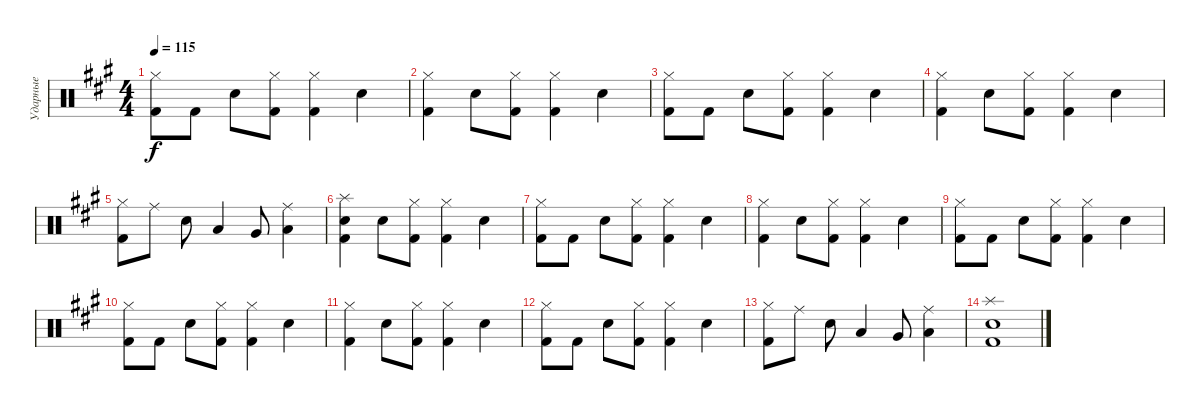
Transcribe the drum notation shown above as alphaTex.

\track ("Ударные" "Ударные") {instrument percussion}
\staff {score}
\articulation defaults
\ts (4 4)
\tempo 115
\clef neutral
\ks f#minor
("Hi-Hat (closed)" "Kick (hit) 2").8{dy f} "Kick (hit) 2".8 "Snare (hit) 2".8 ("Hi-Hat (closed)" "Kick (hit) 2").8{volume 12} ("Hi-Hat (closed)" "Kick (hit) 2").4{volume 11} "Snare (hit) 2".4 |
("Hi-Hat (closed)" "Kick (hit) 2").4 "Snare (hit) 2".8 ("Hi-Hat (closed)" "Kick (hit) 2").8{volume 12} ("Hi-Hat (closed)" "Kick (hit) 2").4{volume 11} "Snare (hit) 2".4 |
("Hi-Hat (closed)" "Kick (hit) 2").8 "Kick (hit) 2".8 "Snare (hit) 2".8 ("Hi-Hat (closed)" "Kick (hit) 2").8{volume 12} ("Hi-Hat (closed)" "Kick (hit) 2").4{volume 11} "Snare (hit) 2".4 |
("Hi-Hat (closed)" "Kick (hit) 2").4 "Snare (hit) 2".8 ("Hi-Hat (closed)" "Kick (hit) 2").8{volume 12} ("Hi-Hat (closed)" "Kick (hit) 2").4{volume 11} "Snare (hit) 2".4 |
("Hi-Hat (closed)" "Kick (hit) 2").8 "Ride (middle)".8 "Snare (hit) 2".8 "Low Tom (hit)".4{volume 12} "Very Low Tom (hit)".8{volume 11} ("Ride (middle)" "Low Floor Tom (hit)").4 |
("Snare (hit) 2" "Splash (hit)" "Kick (hit) 2").4 "Snare (hit) 2".8 ("Hi-Hat (closed)" "Kick (hit) 2").8{volume 12} ("Hi-Hat (closed)" "Kick (hit) 2").4{volume 11} "Snare (hit) 2".4 |
("Hi-Hat (closed)" "Kick (hit) 2").8 "Kick (hit) 2".8 "Snare (hit) 2".8 ("Hi-Hat (closed)" "Kick (hit) 2").8{volume 12} ("Hi-Hat (closed)" "Kick (hit) 2").4{volume 11} "Snare (hit) 2".4 |
("Hi-Hat (closed)" "Kick (hit) 2").4 "Snare (hit) 2".8 ("Hi-Hat (closed)" "Kick (hit) 2").8{volume 12} ("Hi-Hat (closed)" "Kick (hit) 2").4{volume 11} "Snare (hit) 2".4 |
("Hi-Hat (closed)" "Kick (hit) 2").8 "Kick (hit) 2".8 "Snare (hit) 2".8 ("Hi-Hat (closed)" "Kick (hit) 2").8{volume 12} ("Hi-Hat (closed)" "Kick (hit) 2").4{volume 11} "Snare (hit) 2".4 |
("Hi-Hat (closed)" "Kick (hit) 2").8 "Kick (hit) 2".8 "Snare (hit) 2".8 ("Hi-Hat (closed)" "Kick (hit) 2").8{volume 12} ("Hi-Hat (closed)" "Kick (hit) 2").4{volume 11} "Snare (hit) 2".4 |
("Hi-Hat (closed)" "Kick (hit) 2").4 "Snare (hit) 2".8 ("Hi-Hat (closed)" "Kick (hit) 2").8{volume 12} ("Hi-Hat (closed)" "Kick (hit) 2").4{volume 11} "Snare (hit) 2".4 |
("Hi-Hat (closed)" "Kick (hit) 2").8 "Kick (hit) 2".8 "Snare (hit) 2".8 ("Hi-Hat (closed)" "Kick (hit) 2").8{volume 12} ("Hi-Hat (closed)" "Kick (hit) 2").4{volume 11} "Snare (hit) 2".4 |
("Hi-Hat (closed)" "Kick (hit) 2").8 "Ride (middle)".8 "Snare (hit) 2".8 "Low Tom (hit)".4{volume 12} "Very Low Tom (hit)".8{volume 11} ("Ride (middle)" "Low Floor Tom (hit)").4 |
("Snare (hit) 2" "Splash (hit)" "Kick (hit) 2").1
